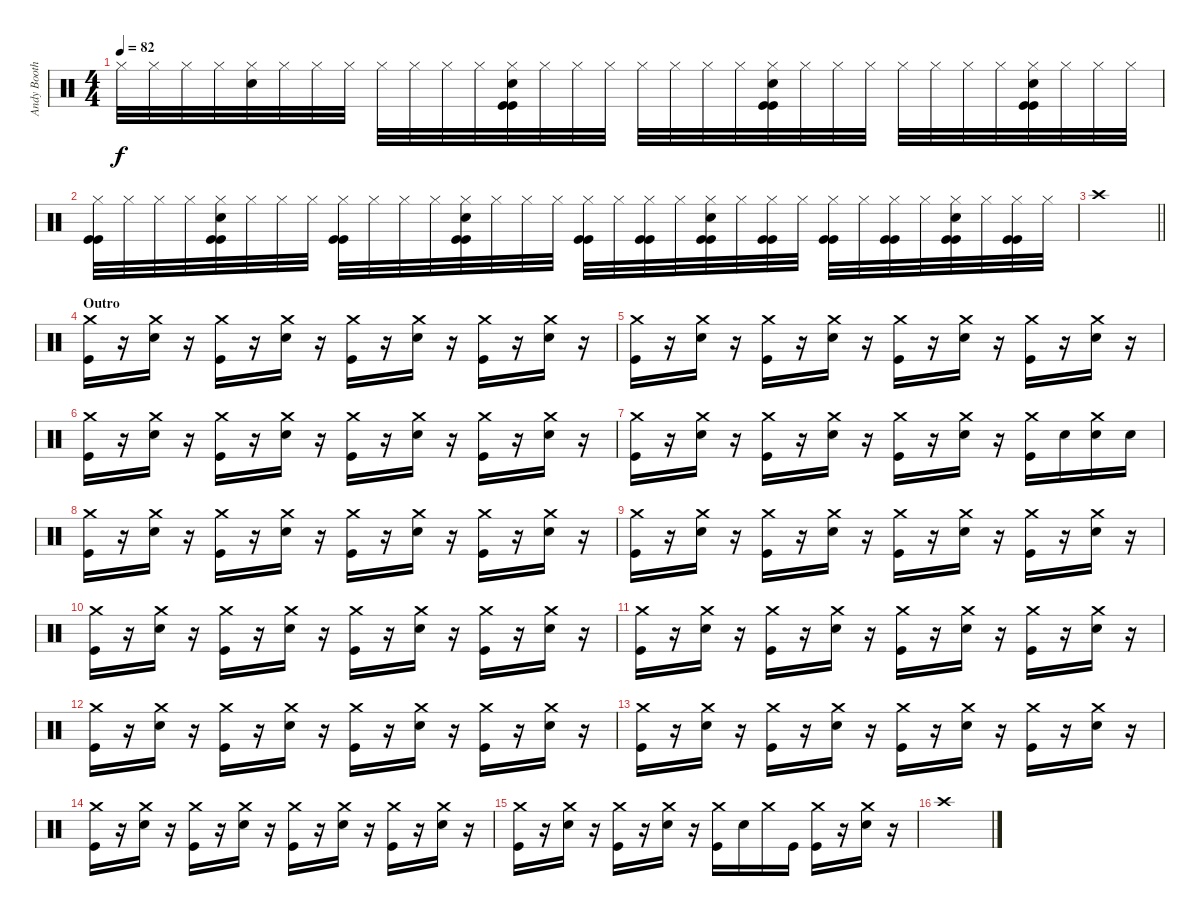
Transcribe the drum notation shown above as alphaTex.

\track ("Andy Booth" "Andy Booth") {instrument percussion}
\staff {score}
\articulation defaults
\ts (4 4)
\tempo 82
\clef neutral
\ks c "Hi-Hat (closed)".32{dy f} "Hi-Hat (closed)".32 "Hi-Hat (closed)".32 "Hi-Hat (closed)".32
("Hi-Hat (closed)" "Hand Clap (hit)").32 "Hi-Hat (closed)".32 "Hi-Hat (closed)".32 "Hi-Hat (closed)".32 "Hi-Hat (closed)".32 "Hi-Hat (closed)".32 "Hi-Hat (closed)".32 "Hi-Hat (closed)".32 ("Hi-Hat (closed)" "Hand Clap (hit)" "Kick (hit)" "Kick (hit)").32 "Hi-Hat (closed)".32 "Hi-Hat (closed)".32 "Hi-Hat (closed)".32 "Hi-Hat (closed)".32 "Hi-Hat (closed)".32 "Hi-Hat (closed)".32 "Hi-Hat (closed)".32 ("Hi-Hat (closed)" "Hand Clap (hit)" "Kick (hit)" "Kick (hit)").32 "Hi-Hat (closed)".32 "Hi-Hat (closed)".32 "Hi-Hat (closed)".32 "Hi-Hat (closed)".32 "Hi-Hat (closed)".32 "Hi-Hat (closed)".32 "Hi-Hat (closed)".32 ("Hi-Hat (closed)" "Hand Clap (hit)" "Kick (hit)" "Kick (hit)").32 "Hi-Hat (closed)".32 "Hi-Hat (closed)".32 "Hi-Hat (closed)".32 |
("Hi-Hat (closed)" "Kick (hit)" "Kick (hit)").32 "Hi-Hat (closed)".32 "Hi-Hat (closed)".32 "Hi-Hat (closed)".32 ("Hi-Hat (closed)" "Hand Clap (hit)" "Kick (hit)" "Kick (hit)").32 "Hi-Hat (closed)".32 "Hi-Hat (closed)".32 "Hi-Hat (closed)".32 ("Hi-Hat (closed)" "Kick (hit)" "Kick (hit)").32 "Hi-Hat (closed)".32 "Hi-Hat (closed)".32 "Hi-Hat (closed)".32 ("Hi-Hat (closed)" "Hand Clap (hit)" "Kick (hit)" "Kick (hit)").32 "Hi-Hat (closed)".32 "Hi-Hat (closed)".32 "Hi-Hat (closed)".32 ("Hi-Hat (closed)" "Kick (hit)" "Kick (hit)").32 "Hi-Hat (closed)".32 ("Hi-Hat (closed)" "Kick (hit)" "Kick (hit)").32 "Hi-Hat (closed)".32 ("Hi-Hat (closed)" "Hand Clap (hit)" "Kick (hit)" "Kick (hit)").32 "Hi-Hat (closed)".32 ("Hi-Hat (closed)" "Kick (hit)" "Kick (hit)").32 "Hi-Hat (closed)".32 ("Hi-Hat (closed)" "Kick (hit)" "Kick (hit)").32 "Hi-Hat (closed)".32 ("Hi-Hat (closed)" "Kick (hit)" "Kick (hit)").32 "Hi-Hat (closed)".32 ("Hi-Hat (closed)" "Hand Clap (hit)" "Kick (hit)" "Kick (hit)").32 "Hi-Hat (closed)".32 ("Hi-Hat (closed)" "Kick (hit)" "Kick (hit)").32 "Hi-Hat (closed)".32 |
\barLineRight lightlight "Crash high (hit)".1
|
\section ("" "Outro")
("Crash medium (hit)" "Kick (hit)").16 r.16 ("Crash medium (hit)" "Electric Snare (hit)").16 r.16 ("Crash medium (hit)" "Kick (hit)").16 r.16 ("Crash medium (hit)" "Electric Snare (hit)").16 r.16 ("Crash medium (hit)" "Kick (hit)").16 r.16 ("Crash medium (hit)" "Electric Snare (hit)").16 r.16 ("Crash medium (hit)" "Kick (hit)").16 r.16 ("Crash medium (hit)" "Electric Snare (hit)").16 r.16 |
("Crash medium (hit)" "Kick (hit)").16 r.16 ("Crash medium (hit)" "Electric Snare (hit)").16 r.16 ("Crash medium (hit)" "Kick (hit)").16 r.16 ("Crash medium (hit)" "Electric Snare (hit)").16 r.16 ("Crash medium (hit)" "Kick (hit)").16 r.16 ("Crash medium (hit)" "Electric Snare (hit)").16 r.16 ("Crash medium (hit)" "Kick (hit)").16 r.16 ("Crash medium (hit)" "Electric Snare (hit)").16 r.16 |
("Crash medium (hit)" "Kick (hit)").16 r.16 ("Crash medium (hit)" "Electric Snare (hit)").16 r.16 ("Crash medium (hit)" "Kick (hit)").16 r.16 ("Crash medium (hit)" "Electric Snare (hit)").16 r.16 ("Crash medium (hit)" "Kick (hit)").16 r.16 ("Crash medium (hit)" "Electric Snare (hit)").16 r.16 ("Crash medium (hit)" "Kick (hit)").16 r.16 ("Crash medium (hit)" "Electric Snare (hit)").16 r.16 |
("Crash medium (hit)" "Kick (hit)").16 r.16 ("Crash medium (hit)" "Electric Snare (hit)").16 r.16 ("Crash medium (hit)" "Kick (hit)").16 r.16 ("Crash medium (hit)" "Electric Snare (hit)").16 r.16 ("Crash medium (hit)" "Kick (hit)").16 r.16 ("Crash medium (hit)" "Electric Snare (hit)").16 r.16 ("Crash medium (hit)" "Kick (hit)").16 "Electric Snare (hit)".16 ("Crash medium (hit)" "Electric Snare (hit)").16 "Electric Snare (hit)".16 |
("Crash medium (hit)" "Kick (hit)").16 r.16 ("Crash medium (hit)" "Electric Snare (hit)").16 r.16 ("Crash medium (hit)" "Kick (hit)").16 r.16 ("Crash medium (hit)" "Electric Snare (hit)").16 r.16 ("Crash medium (hit)" "Kick (hit)").16 r.16 ("Crash medium (hit)" "Electric Snare (hit)").16 r.16 ("Crash medium (hit)" "Kick (hit)").16 r.16 ("Crash medium (hit)" "Electric Snare (hit)").16 r.16 |
("Crash medium (hit)" "Kick (hit)").16 r.16 ("Crash medium (hit)" "Electric Snare (hit)").16 r.16 ("Crash medium (hit)" "Kick (hit)").16 r.16 ("Crash medium (hit)" "Electric Snare (hit)").16 r.16 ("Crash medium (hit)" "Kick (hit)").16 r.16 ("Crash medium (hit)" "Electric Snare (hit)").16 r.16 ("Crash medium (hit)" "Kick (hit)").16 r.16 ("Crash medium (hit)" "Electric Snare (hit)").16 r.16 |
("Crash medium (hit)" "Kick (hit)").16 r.16 ("Crash medium (hit)" "Electric Snare (hit)").16 r.16 ("Crash medium (hit)" "Kick (hit)").16 r.16 ("Crash medium (hit)" "Electric Snare (hit)").16 r.16 ("Crash medium (hit)" "Kick (hit)").16 r.16 ("Crash medium (hit)" "Electric Snare (hit)").16 r.16 ("Crash medium (hit)" "Kick (hit)").16 r.16 ("Crash medium (hit)" "Electric Snare (hit)").16 r.16 |
("Crash medium (hit)" "Kick (hit)").16 r.16 ("Crash medium (hit)" "Electric Snare (hit)").16 r.16 ("Crash medium (hit)" "Kick (hit)").16 r.16 ("Crash medium (hit)" "Electric Snare (hit)").16 r.16 ("Crash medium (hit)" "Kick (hit)").16 r.16 ("Crash medium (hit)" "Electric Snare (hit)").16 r.16 ("Crash medium (hit)" "Kick (hit)").16 r.16 ("Crash medium (hit)" "Electric Snare (hit)").16 r.16 |
("Crash medium (hit)" "Kick (hit)").16 r.16 ("Crash medium (hit)" "Electric Snare (hit)").16 r.16 ("Crash medium (hit)" "Kick (hit)").16 r.16 ("Crash medium (hit)" "Electric Snare (hit)").16 r.16 ("Crash medium (hit)" "Kick (hit)").16 r.16 ("Crash medium (hit)" "Electric Snare (hit)").16 r.16 ("Crash medium (hit)" "Kick (hit)").16 r.16 ("Crash medium (hit)" "Electric Snare (hit)").16 r.16 |
("Crash medium (hit)" "Kick (hit)").16 r.16 ("Crash medium (hit)" "Electric Snare (hit)").16 r.16 ("Crash medium (hit)" "Kick (hit)").16 r.16 ("Crash medium (hit)" "Electric Snare (hit)").16 r.16 ("Crash medium (hit)" "Kick (hit)").16 r.16 ("Crash medium (hit)" "Electric Snare (hit)").16 r.16 ("Crash medium (hit)" "Kick (hit)").16 r.16 ("Crash medium (hit)" "Electric Snare (hit)").16 r.16 |
("Crash medium (hit)" "Kick (hit)").16 r.16 ("Crash medium (hit)" "Electric Snare (hit)").16 r.16 ("Crash medium (hit)" "Kick (hit)").16 r.16 ("Crash medium (hit)" "Electric Snare (hit)").16 r.16 ("Crash medium (hit)" "Kick (hit)").16 r.16 ("Crash medium (hit)" "Electric Snare (hit)").16 r.16 ("Crash medium (hit)" "Kick (hit)").16 r.16 ("Crash medium (hit)" "Electric Snare (hit)").16 r.16 |
("Crash medium (hit)" "Kick (hit)").16 r.16 ("Crash medium (hit)" "Electric Snare (hit)").16 r.16 ("Crash medium (hit)" "Kick (hit)").16 r.16 ("Crash medium (hit)" "Electric Snare (hit)").16 r.16 ("Crash medium (hit)" "Kick (hit)").16 "Electric Snare (hit)".16 "Crash medium (hit)".16 "Kick (hit)".16 ("Crash medium (hit)" "Kick (hit)").16 r.16 ("Crash medium (hit)" "Electric Snare (hit)").16 r.16 |
"Crash high (hit)".1
